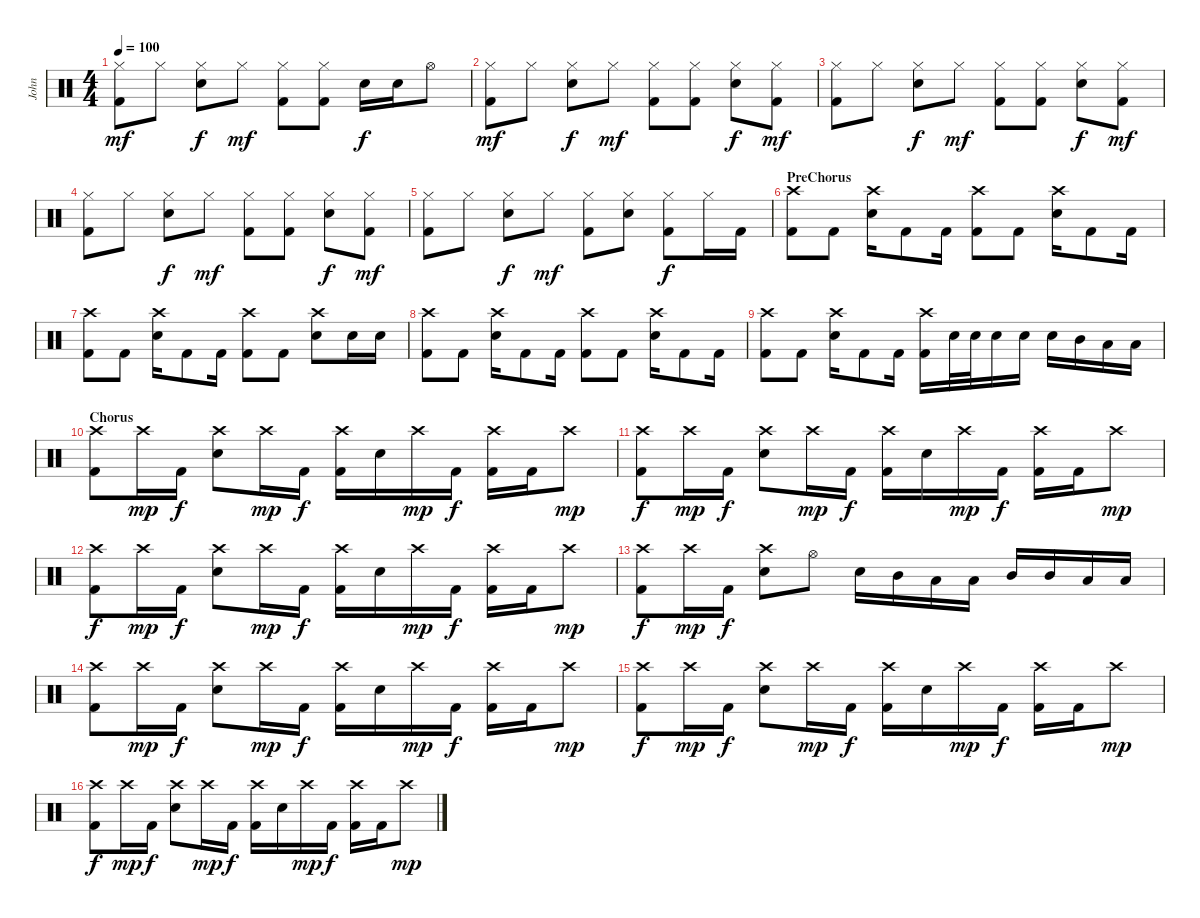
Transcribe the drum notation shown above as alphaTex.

\track ("John" "John") {instrument percussion}
\staff {score}
\articulation defaults
\ts (4 4)
\tempo 100
\clef neutral
\ks c
("Hi-Hat (closed)" "Kick (hit) 2").8{dy mf} "Hi-Hat (closed)".8 ("Hi-Hat (closed)" "Electric Snare (hit)").8{dy f} "Hi-Hat (closed)".8{dy mf} ("Hi-Hat (closed)" "Kick (hit) 2").8 ("Hi-Hat (closed)" "Kick (hit) 2").8 "Electric Snare (hit)".16{dy f} "Electric Snare (hit)".16 "Hi-Hat (open)".8 |
("Hi-Hat (closed)" "Kick (hit) 2").8{dy mf} "Hi-Hat (closed)".8 ("Hi-Hat (closed)" "Electric Snare (hit)").8{dy f} "Hi-Hat (closed)".8{dy mf} ("Hi-Hat (closed)" "Kick (hit) 2").8 ("Hi-Hat (closed)" "Kick (hit) 2").8 ("Hi-Hat (closed)" "Electric Snare (hit)").8{dy f} ("Hi-Hat (closed)" "Kick (hit) 2").8{dy mf} |
("Hi-Hat (closed)" "Kick (hit) 2").8 "Hi-Hat (closed)".8 ("Hi-Hat (closed)" "Electric Snare (hit)").8{dy f} "Hi-Hat (closed)".8{dy mf} ("Hi-Hat (closed)" "Kick (hit) 2").8 ("Hi-Hat (closed)" "Kick (hit) 2").8 ("Hi-Hat (closed)" "Electric Snare (hit)").8{dy f} ("Hi-Hat (closed)" "Kick (hit) 2").8{dy mf} |
("Hi-Hat (closed)" "Kick (hit) 2").8 "Hi-Hat (closed)".8 ("Hi-Hat (closed)" "Electric Snare (hit)").8{dy f} "Hi-Hat (closed)".8{dy mf} ("Hi-Hat (closed)" "Kick (hit) 2").8 ("Hi-Hat (closed)" "Kick (hit) 2").8 ("Hi-Hat (closed)" "Electric Snare (hit)").8{dy f} ("Hi-Hat (closed)" "Kick (hit) 2").8{dy mf} |
("Hi-Hat (closed)" "Kick (hit) 2").8 "Hi-Hat (closed)".8 ("Hi-Hat (closed)" "Electric Snare (hit)").8{dy f} "Hi-Hat (closed)".8{dy mf} ("Hi-Hat (closed)" "Kick (hit) 2").8 ("Hi-Hat (closed)" "Electric Snare (hit)").8 ("Hi-Hat (closed)" "Kick (hit) 2").8{dy f} "Hi-Hat (closed)".16 "Kick (hit) 2".16 |
\section ("" "PreChorus")
("Crash high (hit)" "Kick (hit) 2").8 "Kick (hit) 2".8 ("Crash high (hit)" "Electric Snare (hit)").16 "Kick (hit) 2".8 "Kick (hit) 2".16 ("Crash high (hit)" "Kick (hit) 2").8 "Kick (hit) 2".8 ("Crash high (hit)" "Electric Snare (hit)").16 "Kick (hit) 2".8 "Kick (hit) 2".16 |
("Crash high (hit)" "Kick (hit) 2").8 "Kick (hit) 2".8 ("Crash high (hit)" "Electric Snare (hit)").16 "Kick (hit) 2".8 "Kick (hit) 2".16 ("Crash high (hit)" "Kick (hit) 2").8 "Kick (hit) 2".8 ("Crash high (hit)" "Electric Snare (hit)").8 "Electric Snare (hit)".16 "Electric Snare (hit)".16 |
("Crash high (hit)" "Kick (hit) 2").8 "Kick (hit) 2".8 ("Crash high (hit)" "Electric Snare (hit)").16 "Kick (hit) 2".8 "Kick (hit) 2".16 ("Crash high (hit)" "Kick (hit) 2").8 "Kick (hit) 2".8 ("Crash high (hit)" "Electric Snare (hit)").16 "Kick (hit) 2".8 "Kick (hit) 2".16 |
("Crash high (hit)" "Kick (hit) 2").8 "Kick (hit) 2".8 ("Crash high (hit)" "Electric Snare (hit)").16 "Kick (hit) 2".8 "Kick (hit) 2".16 ("Crash high (hit)" "Kick (hit) 2").16 "Electric Snare (hit)".32 "Electric Snare (hit)".32 "Electric Snare (hit)".16 "Electric Snare (hit)".16 "Electric Snare (hit)".16 "Mid Tom (hit)".16 "Low Tom (hit)".16 "Low Floor Tom (hit)".16 |
\section ("" "Chorus")
("Crash high (hit)" "Kick (hit) 2").8 "Crash high (hit)".16{dy mp} "Kick (hit) 2".16{dy f} ("Crash high (hit)" "Electric Snare (hit)").8 "Crash high (hit)".16{dy mp} "Kick (hit) 2".16{dy f} ("Crash high (hit)" "Kick (hit) 2").16 "Electric Snare (hit)".16 "Crash high (hit)".16{dy mp} "Kick (hit) 2".16{dy f} ("Crash high (hit)" "Kick (hit) 2").16 "Kick (hit) 2".16 "Crash high (hit)".8{dy mp} |
("Crash high (hit)" "Kick (hit) 2").8{dy f} "Crash high (hit)".16{dy mp} "Kick (hit) 2".16{dy f} ("Crash high (hit)" "Electric Snare (hit)").8 "Crash high (hit)".16{dy mp} "Kick (hit) 2".16{dy f} ("Crash high (hit)" "Kick (hit) 2").16 "Electric Snare (hit)".16 "Crash high (hit)".16{dy mp} "Kick (hit) 2".16{dy f} ("Crash high (hit)" "Kick (hit) 2").16 "Kick (hit) 2".16 "Crash high (hit)".8{dy mp} |
("Crash high (hit)" "Kick (hit) 2").8{dy f} "Crash high (hit)".16{dy mp} "Kick (hit) 2".16{dy f} ("Crash high (hit)" "Electric Snare (hit)").8 "Crash high (hit)".16{dy mp} "Kick (hit) 2".16{dy f} ("Crash high (hit)" "Kick (hit) 2").16 "Electric Snare (hit)".16 "Crash high (hit)".16{dy mp} "Kick (hit) 2".16{dy f} ("Crash high (hit)" "Kick (hit) 2").16 "Kick (hit) 2".16 "Crash high (hit)".8{dy mp} |
("Crash high (hit)" "Kick (hit) 2").8{dy f} "Crash high (hit)".16{dy mp} "Kick (hit) 2".16{dy f} ("Crash high (hit)" "Electric Snare (hit)").8 "Hi-Hat (open)".8 "Electric Snare (hit)".16 "Mid Tom (hit)".16 "Low Tom (hit)".16 "Low Floor Tom (hit)".16 "Mid Tom (hit)".16 "Mid Tom (hit)".16 "Low Tom (hit)".16 "Low Floor Tom (hit)".16 |
("Crash high (hit)" "Kick (hit) 2").8 "Crash high (hit)".16{dy mp} "Kick (hit) 2".16{dy f} ("Crash high (hit)" "Electric Snare (hit)").8 "Crash high (hit)".16{dy mp} "Kick (hit) 2".16{dy f} ("Crash high (hit)" "Kick (hit) 2").16 "Electric Snare (hit)".16 "Crash high (hit)".16{dy mp} "Kick (hit) 2".16{dy f} ("Crash high (hit)" "Kick (hit) 2").16 "Kick (hit) 2".16 "Crash high (hit)".8{dy mp} |
("Crash high (hit)" "Kick (hit) 2").8{dy f} "Crash high (hit)".16{dy mp} "Kick (hit) 2".16{dy f} ("Crash high (hit)" "Electric Snare (hit)").8 "Crash high (hit)".16{dy mp} "Kick (hit) 2".16{dy f} ("Crash high (hit)" "Kick (hit) 2").16 "Electric Snare (hit)".16 "Crash high (hit)".16{dy mp} "Kick (hit) 2".16{dy f} ("Crash high (hit)" "Kick (hit) 2").16 "Kick (hit) 2".16 "Crash high (hit)".8{dy mp} |
("Crash high (hit)" "Kick (hit) 2").8{dy f} "Crash high (hit)".16{dy mp} "Kick (hit) 2".16{dy f} ("Crash high (hit)" "Electric Snare (hit)").8 "Crash high (hit)".16{dy mp} "Kick (hit) 2".16{dy f} ("Crash high (hit)" "Kick (hit) 2").16 "Electric Snare (hit)".16 "Crash high (hit)".16{dy mp} "Kick (hit) 2".16{dy f} ("Crash high (hit)" "Kick (hit) 2").16 "Kick (hit) 2".16 "Crash high (hit)".8{dy mp}
